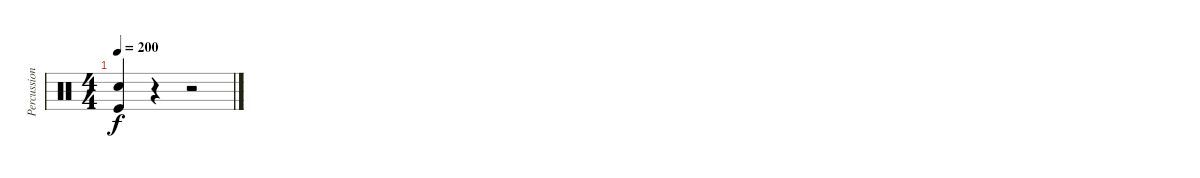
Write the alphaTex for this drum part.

\track ("Percussion" "Percussion") {instrument percussion}
\staff {score}
\articulation defaults
\ts (4 4)
\tempo 200
\clef neutral
\ks c
("Snare (hit) 2" "Kick (hit)").4{dy f} r.4 r.2
